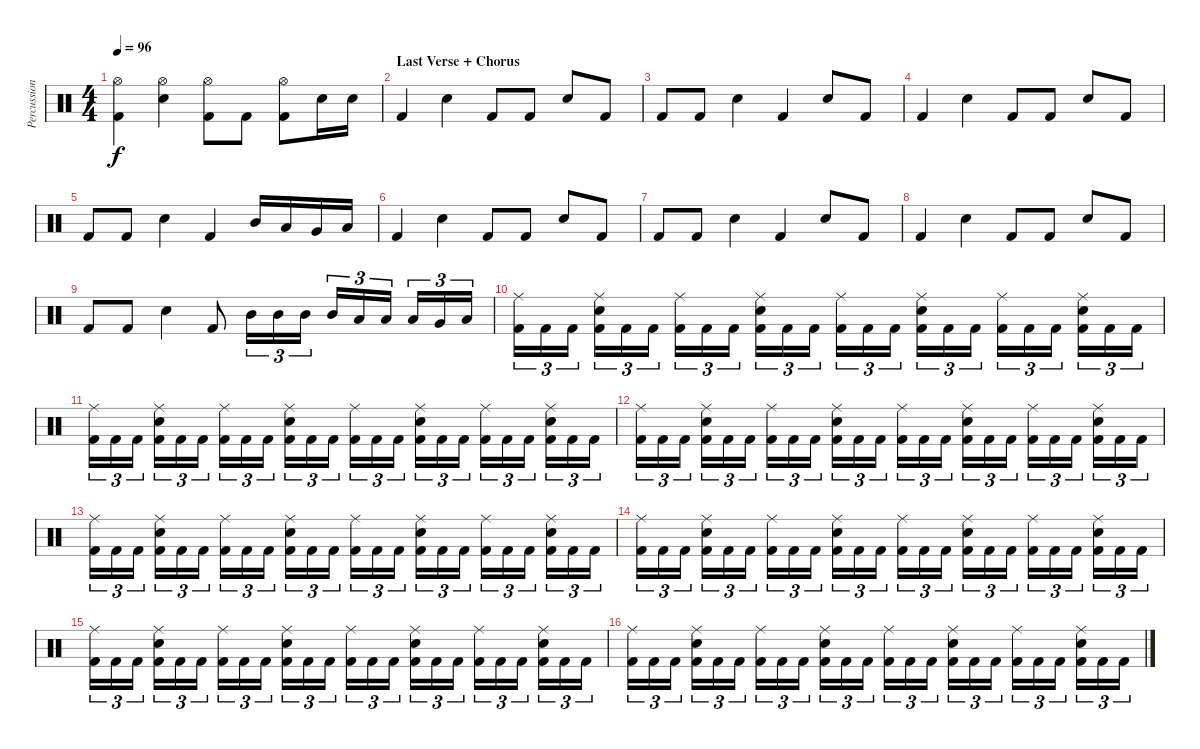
\track ("Percussion" "Percussion") {instrument percussion}
\staff {score}
\articulation defaults
\ts (4 4)
\tempo 96
\clef neutral
\ks c
("Hi-Hat (open)" "Kick (hit) 2").4{dy f} ("Hi-Hat (open)" "Snare (hit) 2").4 ("Hi-Hat (open)" "Kick (hit) 2").8 "Kick (hit) 2".8 ("Hi-Hat (open)" "Kick (hit) 2").8 "Snare (hit) 2".16 "Snare (hit) 2".16 |
\section ("" "Last Verse + Chorus")
"Kick (hit) 2".4 "Snare (hit) 2".4 "Kick (hit) 2".8 "Kick (hit) 2".8 "Snare (hit) 2".8 "Kick (hit) 2".8 |
"Kick (hit) 2".8 "Kick (hit) 2".8 "Snare (hit) 2".4 "Kick (hit) 2".4 "Snare (hit) 2".8 "Kick (hit) 2".8 |
"Kick (hit) 2".4 "Snare (hit) 2".4 "Kick (hit) 2".8 "Kick (hit) 2".8 "Snare (hit) 2".8 "Kick (hit) 2".8 |
"Kick (hit) 2".8 "Kick (hit) 2".8 "Snare (hit) 2".4 "Kick (hit) 2".4 "Mid Tom (hit)".16 "Low Tom (hit)".16 "Very Low Tom (hit)".16 "Low Floor Tom (hit)".16 |
"Kick (hit) 2".4 "Snare (hit) 2".4 "Kick (hit) 2".8 "Kick (hit) 2".8 "Snare (hit) 2".8 "Kick (hit) 2".8 |
"Kick (hit) 2".8 "Kick (hit) 2".8 "Snare (hit) 2".4 "Kick (hit) 2".4 "Snare (hit) 2".8 "Kick (hit) 2".8 |
"Kick (hit) 2".4 "Snare (hit) 2".4 "Kick (hit) 2".8 "Kick (hit) 2".8 "Snare (hit) 2".8 "Kick (hit) 2".8 |
"Kick (hit) 2".8 "Kick (hit) 2".8 "Snare (hit) 2".4 "Kick (hit) 2".8 "Mid Tom (hit)".16{tu (3 2)} "Mid Tom (hit)".16{tu (3 2)} "Mid Tom (hit)".16{tu (3 2)} "Mid Tom (hit)".16{tu (3 2)} "Low Tom (hit)".16{tu (3 2)} "Low Tom (hit)".16{tu (3 2)} "Low Tom (hit)".16{tu (3 2)} "Very Low Tom (hit)".16{tu (3 2)} "Low Floor Tom (hit)".16{tu (3 2)} |
("Ride (middle)" "Kick (hit) 2").16{tu (3 2)} "Kick (hit) 2".16{tu (3 2)} "Kick (hit) 2".16{tu (3 2)} ("Ride (middle)" "Snare (hit) 2" "Kick (hit) 2").16{tu (3 2)} "Kick (hit) 2".16{tu (3 2)} "Kick (hit) 2".16{tu (3 2)} ("Ride (middle)" "Kick (hit) 2").16{tu (3 2)} "Kick (hit) 2".16{tu (3 2)} "Kick (hit) 2".16{tu (3 2)} ("Ride (middle)" "Snare (hit) 2" "Kick (hit) 2").16{tu (3 2)} "Kick (hit) 2".16{tu (3 2)} "Kick (hit) 2".16{tu (3 2)} ("Ride (middle)" "Kick (hit) 2").16{tu (3 2)} "Kick (hit) 2".16{tu (3 2)} "Kick (hit) 2".16{tu (3 2)} ("Ride (middle)" "Snare (hit) 2" "Kick (hit) 2").16{tu (3 2)} "Kick (hit) 2".16{tu (3 2)} "Kick (hit) 2".16{tu (3 2)} ("Ride (middle)" "Kick (hit) 2").16{tu (3 2)} "Kick (hit) 2".16{tu (3 2)} "Kick (hit) 2".16{tu (3 2)} ("Ride (middle)" "Snare (hit) 2" "Kick (hit) 2").16{tu (3 2)} "Kick (hit) 2".16{tu (3 2)} "Kick (hit) 2".16{tu (3 2)} |
("Ride (middle)" "Kick (hit) 2").16{tu (3 2)} "Kick (hit) 2".16{tu (3 2)} "Kick (hit) 2".16{tu (3 2)} ("Ride (middle)" "Snare (hit) 2" "Kick (hit) 2").16{tu (3 2)} "Kick (hit) 2".16{tu (3 2)} "Kick (hit) 2".16{tu (3 2)} ("Ride (middle)" "Kick (hit) 2").16{tu (3 2)} "Kick (hit) 2".16{tu (3 2)} "Kick (hit) 2".16{tu (3 2)} ("Ride (middle)" "Snare (hit) 2" "Kick (hit) 2").16{tu (3 2)} "Kick (hit) 2".16{tu (3 2)} "Kick (hit) 2".16{tu (3 2)} ("Ride (middle)" "Kick (hit) 2").16{tu (3 2)} "Kick (hit) 2".16{tu (3 2)} "Kick (hit) 2".16{tu (3 2)} ("Ride (middle)" "Snare (hit) 2" "Kick (hit) 2").16{tu (3 2)} "Kick (hit) 2".16{tu (3 2)} "Kick (hit) 2".16{tu (3 2)} ("Ride (middle)" "Kick (hit) 2").16{tu (3 2)} "Kick (hit) 2".16{tu (3 2)} "Kick (hit) 2".16{tu (3 2)} ("Ride (middle)" "Snare (hit) 2" "Kick (hit) 2").16{tu (3 2)} "Kick (hit) 2".16{tu (3 2)} "Kick (hit) 2".16{tu (3 2)} |
("Ride (middle)" "Kick (hit) 2").16{tu (3 2)} "Kick (hit) 2".16{tu (3 2)} "Kick (hit) 2".16{tu (3 2)} ("Ride (middle)" "Snare (hit) 2" "Kick (hit) 2").16{tu (3 2)} "Kick (hit) 2".16{tu (3 2)} "Kick (hit) 2".16{tu (3 2)} ("Ride (middle)" "Kick (hit) 2").16{tu (3 2)} "Kick (hit) 2".16{tu (3 2)} "Kick (hit) 2".16{tu (3 2)} ("Ride (middle)" "Snare (hit) 2" "Kick (hit) 2").16{tu (3 2)} "Kick (hit) 2".16{tu (3 2)} "Kick (hit) 2".16{tu (3 2)} ("Ride (middle)" "Kick (hit) 2").16{tu (3 2)} "Kick (hit) 2".16{tu (3 2)} "Kick (hit) 2".16{tu (3 2)} ("Ride (middle)" "Snare (hit) 2" "Kick (hit) 2").16{tu (3 2)} "Kick (hit) 2".16{tu (3 2)} "Kick (hit) 2".16{tu (3 2)} ("Ride (middle)" "Kick (hit) 2").16{tu (3 2)} "Kick (hit) 2".16{tu (3 2)} "Kick (hit) 2".16{tu (3 2)} ("Ride (middle)" "Snare (hit) 2" "Kick (hit) 2").16{tu (3 2)} "Kick (hit) 2".16{tu (3 2)} "Kick (hit) 2".16{tu (3 2)} |
("Ride (middle)" "Kick (hit) 2").16{tu (3 2)} "Kick (hit) 2".16{tu (3 2)} "Kick (hit) 2".16{tu (3 2)} ("Ride (middle)" "Snare (hit) 2" "Kick (hit) 2").16{tu (3 2)} "Kick (hit) 2".16{tu (3 2)} "Kick (hit) 2".16{tu (3 2)} ("Ride (middle)" "Kick (hit) 2").16{tu (3 2)} "Kick (hit) 2".16{tu (3 2)} "Kick (hit) 2".16{tu (3 2)} ("Ride (middle)" "Snare (hit) 2" "Kick (hit) 2").16{tu (3 2)} "Kick (hit) 2".16{tu (3 2)} "Kick (hit) 2".16{tu (3 2)} ("Ride (middle)" "Kick (hit) 2").16{tu (3 2)} "Kick (hit) 2".16{tu (3 2)} "Kick (hit) 2".16{tu (3 2)} ("Ride (middle)" "Snare (hit) 2" "Kick (hit) 2").16{tu (3 2)} "Kick (hit) 2".16{tu (3 2)} "Kick (hit) 2".16{tu (3 2)} ("Ride (middle)" "Kick (hit) 2").16{tu (3 2)} "Kick (hit) 2".16{tu (3 2)} "Kick (hit) 2".16{tu (3 2)} ("Ride (middle)" "Snare (hit) 2" "Kick (hit) 2").16{tu (3 2)} "Kick (hit) 2".16{tu (3 2)} "Kick (hit) 2".16{tu (3 2)} |
("Ride (middle)" "Kick (hit) 2").16{tu (3 2)} "Kick (hit) 2".16{tu (3 2)} "Kick (hit) 2".16{tu (3 2)} ("Ride (middle)" "Snare (hit) 2" "Kick (hit) 2").16{tu (3 2)} "Kick (hit) 2".16{tu (3 2)} "Kick (hit) 2".16{tu (3 2)} ("Ride (middle)" "Kick (hit) 2").16{tu (3 2)} "Kick (hit) 2".16{tu (3 2)} "Kick (hit) 2".16{tu (3 2)} ("Ride (middle)" "Snare (hit) 2" "Kick (hit) 2").16{tu (3 2)} "Kick (hit) 2".16{tu (3 2)} "Kick (hit) 2".16{tu (3 2)} ("Ride (middle)" "Kick (hit) 2").16{tu (3 2)} "Kick (hit) 2".16{tu (3 2)} "Kick (hit) 2".16{tu (3 2)} ("Ride (middle)" "Snare (hit) 2" "Kick (hit) 2").16{tu (3 2)} "Kick (hit) 2".16{tu (3 2)} "Kick (hit) 2".16{tu (3 2)} ("Ride (middle)" "Kick (hit) 2").16{tu (3 2)} "Kick (hit) 2".16{tu (3 2)} "Kick (hit) 2".16{tu (3 2)} ("Ride (middle)" "Snare (hit) 2" "Kick (hit) 2").16{tu (3 2)} "Kick (hit) 2".16{tu (3 2)} "Kick (hit) 2".16{tu (3 2)} |
("Ride (middle)" "Kick (hit) 2").16{tu (3 2)} "Kick (hit) 2".16{tu (3 2)} "Kick (hit) 2".16{tu (3 2)} ("Ride (middle)" "Snare (hit) 2" "Kick (hit) 2").16{tu (3 2)} "Kick (hit) 2".16{tu (3 2)} "Kick (hit) 2".16{tu (3 2)} ("Ride (middle)" "Kick (hit) 2").16{tu (3 2)} "Kick (hit) 2".16{tu (3 2)} "Kick (hit) 2".16{tu (3 2)} ("Ride (middle)" "Snare (hit) 2" "Kick (hit) 2").16{tu (3 2)} "Kick (hit) 2".16{tu (3 2)} "Kick (hit) 2".16{tu (3 2)} ("Ride (middle)" "Kick (hit) 2").16{tu (3 2)} "Kick (hit) 2".16{tu (3 2)} "Kick (hit) 2".16{tu (3 2)} ("Ride (middle)" "Snare (hit) 2" "Kick (hit) 2").16{tu (3 2)} "Kick (hit) 2".16{tu (3 2)} "Kick (hit) 2".16{tu (3 2)} ("Ride (middle)" "Kick (hit) 2").16{tu (3 2)} "Kick (hit) 2".16{tu (3 2)} "Kick (hit) 2".16{tu (3 2)} ("Ride (middle)" "Snare (hit) 2" "Kick (hit) 2").16{tu (3 2)} "Kick (hit) 2".16{tu (3 2)} "Kick (hit) 2".16{tu (3 2)} |
("Ride (middle)" "Kick (hit) 2").16{tu (3 2)} "Kick (hit) 2".16{tu (3 2)} "Kick (hit) 2".16{tu (3 2)} ("Ride (middle)" "Snare (hit) 2" "Kick (hit) 2").16{tu (3 2)} "Kick (hit) 2".16{tu (3 2)} "Kick (hit) 2".16{tu (3 2)} ("Ride (middle)" "Kick (hit) 2").16{tu (3 2)} "Kick (hit) 2".16{tu (3 2)} "Kick (hit) 2".16{tu (3 2)} ("Ride (middle)" "Snare (hit) 2" "Kick (hit) 2").16{tu (3 2)} "Kick (hit) 2".16{tu (3 2)} "Kick (hit) 2".16{tu (3 2)} ("Ride (middle)" "Kick (hit) 2").16{tu (3 2)} "Kick (hit) 2".16{tu (3 2)} "Kick (hit) 2".16{tu (3 2)} ("Ride (middle)" "Snare (hit) 2" "Kick (hit) 2").16{tu (3 2)} "Kick (hit) 2".16{tu (3 2)} "Kick (hit) 2".16{tu (3 2)} ("Ride (middle)" "Kick (hit) 2").16{tu (3 2)} "Kick (hit) 2".16{tu (3 2)} "Kick (hit) 2".16{tu (3 2)} ("Ride (middle)" "Snare (hit) 2" "Kick (hit) 2").16{tu (3 2)} "Kick (hit) 2".16{tu (3 2)} "Kick (hit) 2".16{tu (3 2)}
